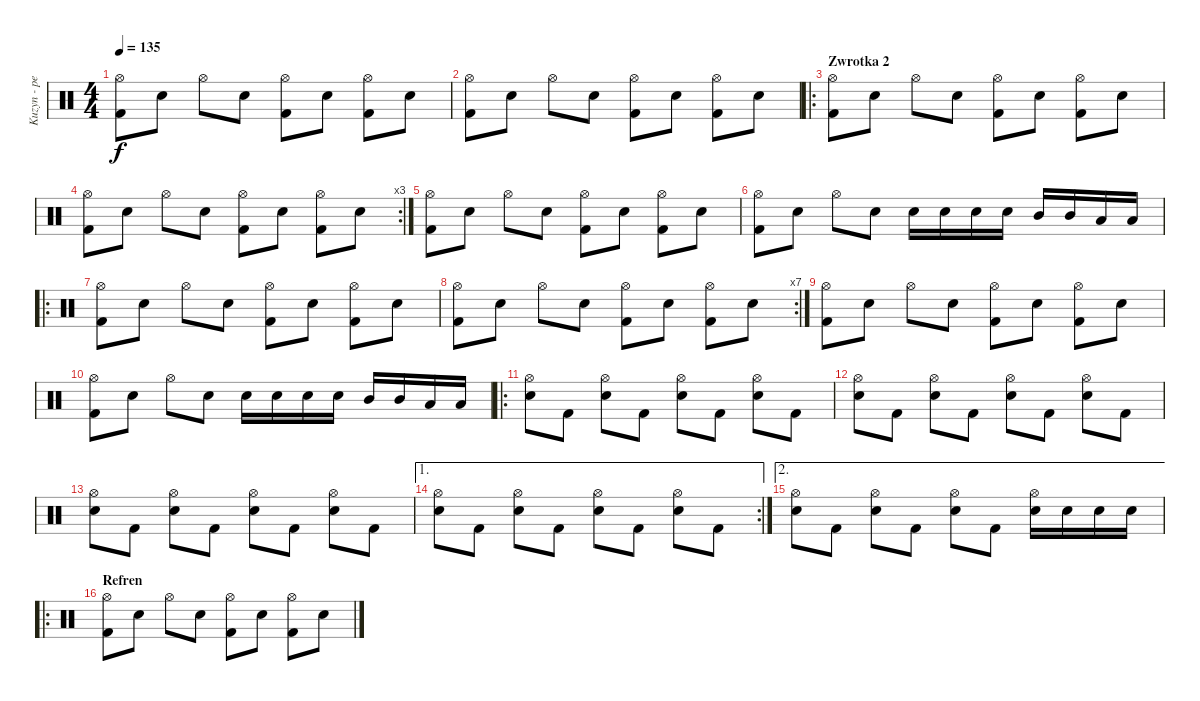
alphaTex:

\track ("Kuzyn - perkusja" "Kuzyn - pe") {instrument percussion}
\staff {score}
\articulation defaults
\ts (4 4)
\tempo 135
\clef neutral
\ks c
("Hi-Hat (open)" "Kick (hit) 2").8{dy f} "Electric Snare (hit)".8 "Hi-Hat (open)".8 "Electric Snare (hit)".8 ("Hi-Hat (open)" "Kick (hit) 2").8 "Electric Snare (hit)".8 ("Hi-Hat (open)" "Kick (hit) 2").8 "Electric Snare (hit)".8 |
("Hi-Hat (open)" "Kick (hit) 2").8 "Electric Snare (hit)".8 "Hi-Hat (open)".8 "Electric Snare (hit)".8 ("Hi-Hat (open)" "Kick (hit) 2").8 "Electric Snare (hit)".8 ("Hi-Hat (open)" "Kick (hit) 2").8 "Electric Snare (hit)".8 |
\ro
\section ("" "Zwrotka 2")
("Hi-Hat (open)" "Kick (hit) 2").8 "Electric Snare (hit)".8 "Hi-Hat (open)".8 "Electric Snare (hit)".8 ("Hi-Hat (open)" "Kick (hit) 2").8 "Electric Snare (hit)".8 ("Hi-Hat (open)" "Kick (hit) 2").8 "Electric Snare (hit)".8 |
\rc 3
("Hi-Hat (open)" "Kick (hit) 2").8 "Electric Snare (hit)".8 "Hi-Hat (open)".8 "Electric Snare (hit)".8 ("Hi-Hat (open)" "Kick (hit) 2").8 "Electric Snare (hit)".8 ("Hi-Hat (open)" "Kick (hit) 2").8 "Electric Snare (hit)".8 |
("Hi-Hat (open)" "Kick (hit) 2").8 "Electric Snare (hit)".8 "Hi-Hat (open)".8 "Electric Snare (hit)".8 ("Hi-Hat (open)" "Kick (hit) 2").8 "Electric Snare (hit)".8 ("Hi-Hat (open)" "Kick (hit) 2").8 "Electric Snare (hit)".8 |
("Hi-Hat (open)" "Kick (hit) 2").8 "Electric Snare (hit)".8 "Hi-Hat (open)".8 "Electric Snare (hit)".8 "Electric Snare (hit)".16 "Electric Snare (hit)".16 "Electric Snare (hit)".16 "Electric Snare (hit)".16 "Mid Tom (hit)".16 "Mid Tom (hit)".16 "Low Tom (hit)".16 "Low Tom (hit)".16 |
\ro
("Hi-Hat (open)" "Kick (hit) 2").8 "Electric Snare (hit)".8 "Hi-Hat (open)".8 "Electric Snare (hit)".8 ("Hi-Hat (open)" "Kick (hit) 2").8 "Electric Snare (hit)".8 ("Hi-Hat (open)" "Kick (hit) 2").8 "Electric Snare (hit)".8 |
\rc 7
("Hi-Hat (open)" "Kick (hit) 2").8 "Electric Snare (hit)".8 "Hi-Hat (open)".8 "Electric Snare (hit)".8 ("Hi-Hat (open)" "Kick (hit) 2").8 "Electric Snare (hit)".8 ("Hi-Hat (open)" "Kick (hit) 2").8 "Electric Snare (hit)".8 |
("Hi-Hat (open)" "Kick (hit) 2").8 "Electric Snare (hit)".8 "Hi-Hat (open)".8 "Electric Snare (hit)".8 ("Hi-Hat (open)" "Kick (hit) 2").8 "Electric Snare (hit)".8 ("Hi-Hat (open)" "Kick (hit) 2").8 "Electric Snare (hit)".8 |
("Hi-Hat (open)" "Kick (hit) 2").8 "Electric Snare (hit)".8 "Hi-Hat (open)".8 "Electric Snare (hit)".8 "Electric Snare (hit)".16 "Electric Snare (hit)".16 "Electric Snare (hit)".16 "Electric Snare (hit)".16 "Mid Tom (hit)".16 "Mid Tom (hit)".16 "Low Tom (hit)".16 "Low Tom (hit)".16 |
\ro
("Hi-Hat (open)" "Electric Snare (hit)").8 "Kick (hit) 2".8 ("Hi-Hat (open)" "Electric Snare (hit)").8 "Kick (hit) 2".8 ("Hi-Hat (open)" "Electric Snare (hit)").8 "Kick (hit) 2".8 ("Hi-Hat (open)" "Electric Snare (hit)").8 "Kick (hit) 2".8 |
("Hi-Hat (open)" "Electric Snare (hit)").8 "Kick (hit) 2".8 ("Hi-Hat (open)" "Electric Snare (hit)").8 "Kick (hit) 2".8 ("Hi-Hat (open)" "Electric Snare (hit)").8 "Kick (hit) 2".8 ("Hi-Hat (open)" "Electric Snare (hit)").8 "Kick (hit) 2".8 |
("Hi-Hat (open)" "Electric Snare (hit)").8 "Kick (hit) 2".8 ("Hi-Hat (open)" "Electric Snare (hit)").8 "Kick (hit) 2".8 ("Hi-Hat (open)" "Electric Snare (hit)").8 "Kick (hit) 2".8 ("Hi-Hat (open)" "Electric Snare (hit)").8 "Kick (hit) 2".8 |
\ae 1
\rc 2
("Hi-Hat (open)" "Electric Snare (hit)").8 "Kick (hit) 2".8 ("Hi-Hat (open)" "Electric Snare (hit)").8 "Kick (hit) 2".8 ("Hi-Hat (open)" "Electric Snare (hit)").8 "Kick (hit) 2".8 ("Hi-Hat (open)" "Electric Snare (hit)").8 "Kick (hit) 2".8 |
\ae 2
("Hi-Hat (open)" "Electric Snare (hit)").8 "Kick (hit) 2".8 ("Hi-Hat (open)" "Electric Snare (hit)").8 "Kick (hit) 2".8 ("Hi-Hat (open)" "Electric Snare (hit)").8 "Kick (hit) 2".8 ("Hi-Hat (open)" "Electric Snare (hit)").16 "Electric Snare (hit)".16 "Electric Snare (hit)".16 "Electric Snare (hit)".16 |
\ro
\section ("" "Refren")
("Hi-Hat (open)" "Kick (hit) 2").8 "Electric Snare (hit)".8 "Hi-Hat (open)".8 "Electric Snare (hit)".8 ("Hi-Hat (open)" "Kick (hit) 2").8 "Electric Snare (hit)".8 ("Hi-Hat (open)" "Kick (hit) 2").8 "Electric Snare (hit)".8
